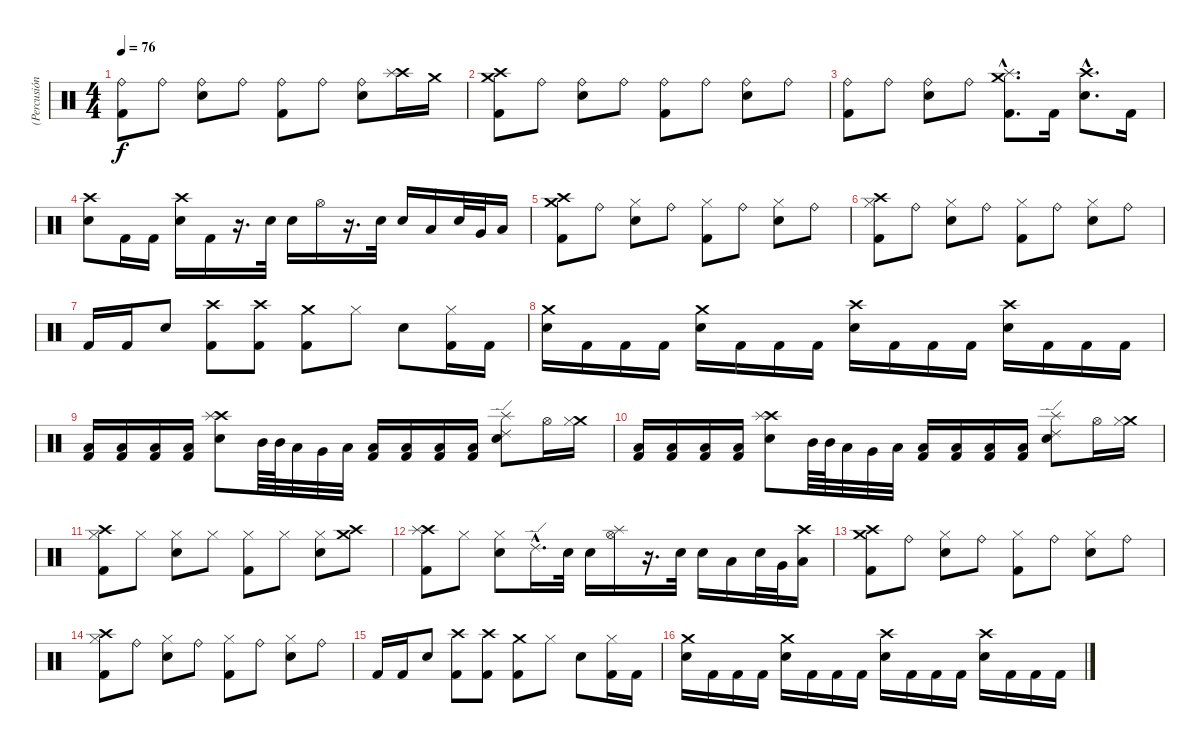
\track ("(Percusión)" "(Percusión") {instrument percussion}
\staff {score}
\articulation defaults
\ts (4 4)
\tempo 76
\clef neutral
\ks c
("Ride (bell)" "Kick (hit) 2").8{dy f} "Ride (bell)".8 ("Ride (bell)" "Snare (hit) 2").8 "Ride (bell)".8 ("Ride (bell)" "Kick (hit) 2").8 "Ride (bell)".8 ("Ride (bell)" "Snare (hit) 2").8 ("Crash high (hit)" "Splash (hit)").16 "Crash medium (hit)".16 |
("Crash high (hit)" "Crash medium (hit)" "Kick (hit) 2").8 "Ride (bell)".8 ("Ride (bell)" "Snare (hit) 2").8 "Ride (bell)".8 ("Ride (bell)" "Kick (hit) 2").8 "Ride (bell)".8 ("Ride (bell)" "Snare (hit) 2").8 "Ride (bell)".8 |
("Ride (bell)" "Kick (hit) 2").8 "Ride (bell)".8 ("Ride (bell)" "Snare (hit) 2").8 "Ride (bell)".8 ("Crash medium (hit)"{hac} "Splash (hit)"{hac} "Kick (hit) 2"{hac}).8{d} "Kick (hit) 2".16 ("Crash high (hit)"{hac} "Snare (hit) 2"{hac}).8{d} "Kick (hit) 2".16 |
("Crash high (hit)" "Snare (hit) 2").8 "Kick (hit) 2".16 "Kick (hit) 2".16 ("Crash high (hit)" "Snare (hit) 2").16 "Kick (hit) 2".16 r.16{d} "Snare (hit) 2".32 "Snare (hit) 2".16 "Hi-Hat (open)".16 r.16{d} "Snare (hit) 2".32 "Snare (hit) 2".16 "Low Floor Tom (hit)".16 "Snare (hit) 2".32 "Very Low Tom (hit)".32 "Low Floor Tom (hit)".16 |
("Crash medium (hit)" "Crash high (hit)" "Kick (hit) 2").8 "Ride (bell)".8 ("Hi-Hat (closed)" "Snare (hit) 2").8 "Ride (bell)".8 ("Hi-Hat (closed)" "Kick (hit) 2").8 "Ride (bell)".8 ("Hi-Hat (closed)" "Snare (hit) 2").8 "Ride (bell)".8 |
("Hi-Hat (closed)" "Crash high (hit)" "Kick (hit) 2").8 "Ride (bell)".8 ("Hi-Hat (closed)" "Snare (hit) 2").8 "Ride (bell)".8 ("Hi-Hat (closed)" "Kick (hit) 2").8 "Ride (bell)".8 ("Hi-Hat (closed)" "Snare (hit) 2").8 "Ride (bell)".8 |
"Kick (hit) 2".16 "Kick (hit) 2".16 "Snare (hit) 2".8 ("Crash high (hit)" "Kick (hit) 2").8 ("Crash high (hit)" "Kick (hit) 2").8 ("Crash medium (hit)" "Kick (hit) 2").8 "Hi-Hat (closed)".8 "Snare (hit) 2".8 ("Hi-Hat (closed)" "Kick (hit) 2").16 "Kick (hit) 2".16 |
("Crash medium (hit)" "Snare (hit) 2").16 "Kick (hit) 2".16 "Kick (hit) 2".16 "Kick (hit) 2".16 ("Crash medium (hit)" "Snare (hit) 2").16 "Kick (hit) 2".16 "Kick (hit) 2".16 "Kick (hit) 2".16 ("Crash high (hit)" "Snare (hit) 2").16 "Kick (hit) 2".16 "Kick (hit) 2".16 "Kick (hit) 2".16 ("Crash high (hit)" "Snare (hit) 2").16 "Kick (hit) 2".16 "Kick (hit) 2".16 "Kick (hit) 2".16 |
("Low Floor Tom (hit)" "Kick (hit) 2").16 ("Low Floor Tom (hit)" "Kick (hit) 2").16 ("Low Floor Tom (hit)" "Kick (hit) 2").16 ("Low Floor Tom (hit)" "Kick (hit) 2").16 ("Crash high (hit)" "Splash (hit)" "Snare (hit) 2").8 "Mid Tom (hit)".64 "Mid Tom (hit)".64 "Low Tom (hit)".32 "Very Low Tom (hit)".32 "Low Floor Tom (hit)".32 ("Low Floor Tom (hit)" "Kick (hit) 2").16 ("Low Floor Tom (hit)" "Kick (hit) 2").16 ("Low Floor Tom (hit)" "Kick (hit) 2").16 ("Low Floor Tom (hit)" "Kick (hit) 2").16 ("Ride (edge) 2" "Splash (hit)" "Snare (hit) 2").8 "Hi-Hat (open)".16 ("Crash medium (hit)" "Hi-Hat (closed)").16 |
("Low Floor Tom (hit)" "Kick (hit) 2").16 ("Low Floor Tom (hit)" "Kick (hit) 2").16 ("Low Floor Tom (hit)" "Kick (hit) 2").16 ("Low Floor Tom (hit)" "Kick (hit) 2").16 ("Crash high (hit)" "Splash (hit)" "Snare (hit) 2").8 "Mid Tom (hit)".64 "Mid Tom (hit)".64 "Low Tom (hit)".32 "Very Low Tom (hit)".32 "Low Floor Tom (hit)".32 ("Low Floor Tom (hit)" "Kick (hit) 2").16 ("Low Floor Tom (hit)" "Kick (hit) 2").16 ("Low Floor Tom (hit)" "Kick (hit) 2").16 ("Low Floor Tom (hit)" "Kick (hit) 2").16 ("Ride (edge) 2" "Splash (hit)" "Snare (hit) 2").8 "Hi-Hat (open)".16 ("Crash medium (hit)" "Hi-Hat (closed)").16 |
("Hi-Hat (closed)" "Crash high (hit)" "Kick (hit) 2").8 "Hi-Hat (closed)".8 ("Hi-Hat (closed)" "Snare (hit) 2").8 "Hi-Hat (closed)".8 ("Hi-Hat (closed)" "Kick (hit) 2").8 "Hi-Hat (closed)".8 ("Hi-Hat (closed)" "Snare (hit) 2").8 ("Crash high (hit)" "Crash medium (hit)").8 |
("Crash high (hit)" "Splash (hit)" "Kick (hit) 2").8 "Hi-Hat (closed)".8 ("Hi-Hat (closed)" "Snare (hit) 2").8 "Ride (edge) 2"{hac}.16{d} "Snare (hit) 2".32 "Snare (hit) 2".16 ("Hi-Hat (open)" "Splash (hit)").16 r.16{d} "Snare (hit) 2".32 "Snare (hit) 2".16 "Low Floor Tom (hit)".16 "Snare (hit) 2".32 "Very Low Tom (hit)".32 ("Crash high (hit)" "Low Floor Tom (hit)").16 |
("Crash medium (hit)" "Crash high (hit)" "Kick (hit) 2").8 "Ride (bell)".8 ("Hi-Hat (closed)" "Snare (hit) 2").8 "Ride (bell)".8 ("Hi-Hat (closed)" "Kick (hit) 2").8 "Ride (bell)".8 ("Hi-Hat (closed)" "Snare (hit) 2").8 "Ride (bell)".8 |
("Hi-Hat (closed)" "Crash high (hit)" "Kick (hit) 2").8 "Ride (bell)".8 ("Hi-Hat (closed)" "Snare (hit) 2").8 "Ride (bell)".8 ("Hi-Hat (closed)" "Kick (hit) 2").8 "Ride (bell)".8 ("Hi-Hat (closed)" "Snare (hit) 2").8 "Ride (bell)".8 |
"Kick (hit) 2".16 "Kick (hit) 2".16 "Snare (hit) 2".8 ("Crash high (hit)" "Kick (hit) 2").8 ("Crash high (hit)" "Kick (hit) 2").8 ("Crash medium (hit)" "Kick (hit) 2").8 "Hi-Hat (closed)".8 "Snare (hit) 2".8 ("Hi-Hat (closed)" "Kick (hit) 2").16 "Kick (hit) 2".16 |
("Crash medium (hit)" "Snare (hit) 2").16 "Kick (hit) 2".16 "Kick (hit) 2".16 "Kick (hit) 2".16 ("Crash medium (hit)" "Snare (hit) 2").16 "Kick (hit) 2".16 "Kick (hit) 2".16 "Kick (hit) 2".16 ("Crash high (hit)" "Snare (hit) 2").16 "Kick (hit) 2".16 "Kick (hit) 2".16 "Kick (hit) 2".16 ("Crash high (hit)" "Snare (hit) 2").16 "Kick (hit) 2".16 "Kick (hit) 2".16 "Kick (hit) 2".16
